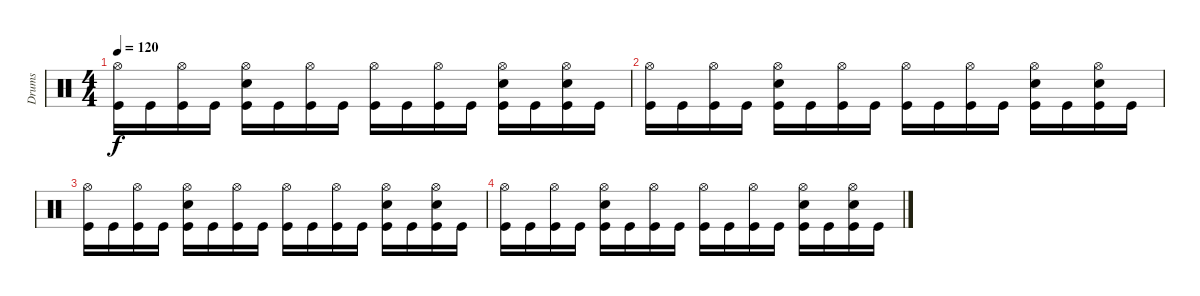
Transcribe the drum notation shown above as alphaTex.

\track ("Drums" "Drums") {instrument percussion}
\staff {score}
\articulation defaults
\ts (4 4)
\tempo 120
\clef neutral
\ks c
("Hi-Hat (open)" "Kick (hit)").16{dy f} "Kick (hit)".16 ("Hi-Hat (open)" "Kick (hit)").16 "Kick (hit)".16 ("Hi-Hat (open)" "Snare (hit) 2" "Kick (hit)").16 "Kick (hit)".16 ("Hi-Hat (open)" "Kick (hit)").16 "Kick (hit)".16 ("Hi-Hat (open)" "Kick (hit)").16 "Kick (hit)".16 ("Hi-Hat (open)" "Kick (hit)").16 "Kick (hit)".16 ("Hi-Hat (open)" "Snare (hit) 2" "Kick (hit)").16 "Kick (hit)".16 ("Hi-Hat (open)" "Snare (hit) 2" "Kick (hit)").16 "Kick (hit)".16 |
("Hi-Hat (open)" "Kick (hit)").16 "Kick (hit)".16 ("Hi-Hat (open)" "Kick (hit)").16 "Kick (hit)".16 ("Hi-Hat (open)" "Snare (hit) 2" "Kick (hit)").16 "Kick (hit)".16 ("Hi-Hat (open)" "Kick (hit)").16 "Kick (hit)".16 ("Hi-Hat (open)" "Kick (hit)").16 "Kick (hit)".16 ("Hi-Hat (open)" "Kick (hit)").16 "Kick (hit)".16 ("Hi-Hat (open)" "Snare (hit) 2" "Kick (hit)").16 "Kick (hit)".16 ("Hi-Hat (open)" "Snare (hit) 2" "Kick (hit)").16 "Kick (hit)".16 |
("Hi-Hat (open)" "Kick (hit)").16 "Kick (hit)".16 ("Hi-Hat (open)" "Kick (hit)").16 "Kick (hit)".16 ("Hi-Hat (open)" "Snare (hit) 2" "Kick (hit)").16 "Kick (hit)".16 ("Hi-Hat (open)" "Kick (hit)").16 "Kick (hit)".16 ("Hi-Hat (open)" "Kick (hit)").16 "Kick (hit)".16 ("Hi-Hat (open)" "Kick (hit)").16 "Kick (hit)".16 ("Hi-Hat (open)" "Snare (hit) 2" "Kick (hit)").16 "Kick (hit)".16 ("Hi-Hat (open)" "Snare (hit) 2" "Kick (hit)").16 "Kick (hit)".16 |
("Hi-Hat (open)" "Kick (hit)").16 "Kick (hit)".16 ("Hi-Hat (open)" "Kick (hit)").16 "Kick (hit)".16 ("Hi-Hat (open)" "Snare (hit) 2" "Kick (hit)").16 "Kick (hit)".16 ("Hi-Hat (open)" "Kick (hit)").16 "Kick (hit)".16 ("Hi-Hat (open)" "Kick (hit)").16 "Kick (hit)".16 ("Hi-Hat (open)" "Kick (hit)").16 "Kick (hit)".16 ("Hi-Hat (open)" "Snare (hit) 2" "Kick (hit)").16 "Kick (hit)".16 ("Hi-Hat (open)" "Snare (hit) 2" "Kick (hit)").16 "Kick (hit)".16
